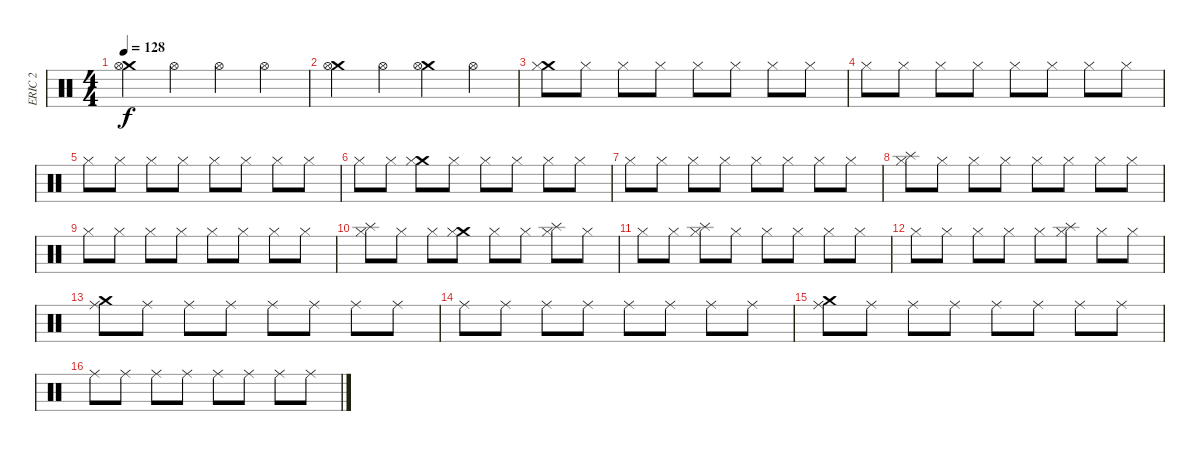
\track ("ERIC 2" "ERIC 2") {instrument percussion}
\staff {score}
\articulation defaults
\ts (4 4)
\tempo 128
\clef neutral
\ks c
("Crash medium (hit)" "Hi-Hat (open)").4{dy f} "Hi-Hat (open)".4 "Hi-Hat (open)".4 "Hi-Hat (open)".4 |
("Crash medium (hit)" "Hi-Hat (open)").4 "Hi-Hat (open)".4 ("Crash medium (hit)" "Hi-Hat (open)").4 "Hi-Hat (open)".4 |
("Crash medium (hit)" "Hi-Hat (closed)").8 "Hi-Hat (closed)".8 "Hi-Hat (closed)".8 "Hi-Hat (closed)".8 "Hi-Hat (closed)".8 "Hi-Hat (closed)".8 "Hi-Hat (closed)".8 "Hi-Hat (closed)".8 |
"Hi-Hat (closed)".8 "Hi-Hat (closed)".8 "Hi-Hat (closed)".8 "Hi-Hat (closed)".8 "Hi-Hat (closed)".8 "Hi-Hat (closed)".8 "Hi-Hat (closed)".8 "Hi-Hat (closed)".8 |
"Hi-Hat (closed)".8 "Hi-Hat (closed)".8 "Hi-Hat (closed)".8 "Hi-Hat (closed)".8 "Hi-Hat (closed)".8 "Hi-Hat (closed)".8 "Hi-Hat (closed)".8 "Hi-Hat (closed)".8 |
"Hi-Hat (closed)".8 "Hi-Hat (closed)".8 ("Crash medium (hit)" "Hi-Hat (closed)").8 "Hi-Hat (closed)".8 "Hi-Hat (closed)".8 "Hi-Hat (closed)".8 "Hi-Hat (closed)".8 "Hi-Hat (closed)".8 |
"Hi-Hat (closed)".8 "Hi-Hat (closed)".8 "Hi-Hat (closed)".8 "Hi-Hat (closed)".8 "Hi-Hat (closed)".8 "Hi-Hat (closed)".8 "Hi-Hat (closed)".8 "Hi-Hat (closed)".8 |
("Splash (hit)" "Hi-Hat (closed)").8 "Hi-Hat (closed)".8 "Hi-Hat (closed)".8 "Hi-Hat (closed)".8 "Hi-Hat (closed)".8 "Hi-Hat (closed)".8 "Hi-Hat (closed)".8 "Hi-Hat (closed)".8 |
"Hi-Hat (closed)".8 "Hi-Hat (closed)".8 "Hi-Hat (closed)".8 "Hi-Hat (closed)".8 "Hi-Hat (closed)".8 "Hi-Hat (closed)".8 "Hi-Hat (closed)".8 "Hi-Hat (closed)".8 |
("Splash (hit)" "Hi-Hat (closed)").8 "Hi-Hat (closed)".8 "Hi-Hat (closed)".8 ("Crash medium (hit)" "Hi-Hat (closed)").8 "Hi-Hat (closed)".8 "Hi-Hat (closed)".8 ("Splash (hit)" "Hi-Hat (closed)").8 "Hi-Hat (closed)".8 |
"Hi-Hat (closed)".8 "Hi-Hat (closed)".8 ("Splash (hit)" "Hi-Hat (closed)").8 "Hi-Hat (closed)".8 "Hi-Hat (closed)".8 "Hi-Hat (closed)".8 "Hi-Hat (closed)".8 "Hi-Hat (closed)".8 |
"Hi-Hat (closed)".8 "Hi-Hat (closed)".8 "Hi-Hat (closed)".8 "Hi-Hat (closed)".8 "Hi-Hat (closed)".8 ("Splash (hit)" "Hi-Hat (closed)").8 "Hi-Hat (closed)".8 "Hi-Hat (closed)".8 |
("Crash medium (hit)" "Ride (middle)").8 "Ride (middle)".8 "Ride (middle)".8 "Ride (middle)".8 "Ride (middle)".8 "Ride (middle)".8 "Ride (middle)".8 "Ride (middle)".8 |
"Ride (middle)".8 "Ride (middle)".8 "Ride (middle)".8 "Ride (middle)".8 "Ride (middle)".8 "Ride (middle)".8 "Ride (middle)".8 "Ride (middle)".8 |
("Crash medium (hit)" "Ride (middle)").8 "Ride (middle)".8 "Ride (middle)".8 "Ride (middle)".8 "Ride (middle)".8 "Ride (middle)".8 "Ride (middle)".8 "Ride (middle)".8 |
"Ride (middle)".8 "Ride (middle)".8 "Ride (middle)".8 "Ride (middle)".8 "Ride (middle)".8 "Ride (middle)".8 "Ride (middle)".8 "Ride (middle)".8
